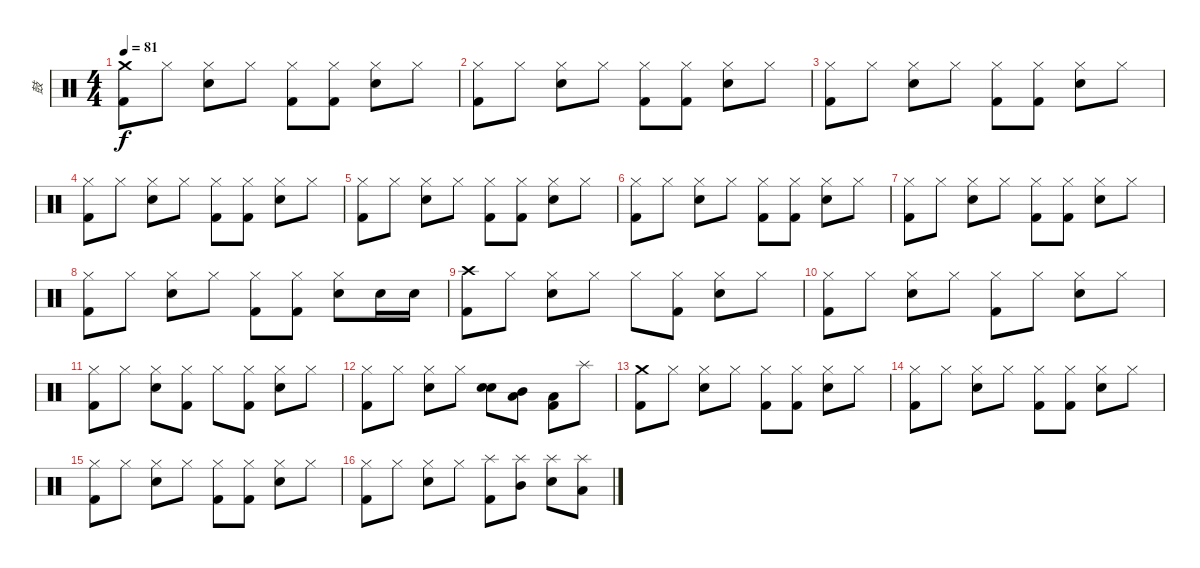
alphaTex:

\track ("鼓" "鼓") {instrument percussion}
\staff {score}
\articulation defaults
\ts (4 4)
\tempo 81
\clef neutral
\ks c
("Crash medium (hit)" "Kick (hit) 2").8{dy f} "Hi-Hat (closed)".8 ("Hi-Hat (closed)" "Snare (hit) 2").8 "Hi-Hat (closed)".8 ("Hi-Hat (closed)" "Kick (hit) 2").8 ("Hi-Hat (closed)" "Kick (hit) 2").8 ("Hi-Hat (closed)" "Snare (hit) 2").8 "Hi-Hat (closed)".8 |
("Hi-Hat (closed)" "Kick (hit) 2").8 "Hi-Hat (closed)".8 ("Hi-Hat (closed)" "Snare (hit) 2").8 "Hi-Hat (closed)".8 ("Hi-Hat (closed)" "Kick (hit) 2").8 ("Hi-Hat (closed)" "Kick (hit) 2").8 ("Hi-Hat (closed)" "Snare (hit) 2").8 "Hi-Hat (closed)".8 |
("Hi-Hat (closed)" "Kick (hit) 2").8 "Hi-Hat (closed)".8 ("Hi-Hat (closed)" "Snare (hit) 2").8 "Hi-Hat (closed)".8 ("Hi-Hat (closed)" "Kick (hit) 2").8 ("Hi-Hat (closed)" "Kick (hit) 2").8 ("Hi-Hat (closed)" "Snare (hit) 2").8 "Hi-Hat (closed)".8 |
("Hi-Hat (closed)" "Kick (hit) 2").8 "Hi-Hat (closed)".8 ("Hi-Hat (closed)" "Snare (hit) 2").8 "Hi-Hat (closed)".8 ("Hi-Hat (closed)" "Kick (hit) 2").8 ("Hi-Hat (closed)" "Kick (hit) 2").8 ("Hi-Hat (closed)" "Snare (hit) 2").8 "Hi-Hat (closed)".8 |
("Hi-Hat (closed)" "Kick (hit) 2").8 "Hi-Hat (closed)".8 ("Hi-Hat (closed)" "Snare (hit) 2").8 "Hi-Hat (closed)".8 ("Hi-Hat (closed)" "Kick (hit) 2").8 ("Hi-Hat (closed)" "Kick (hit) 2").8 ("Hi-Hat (closed)" "Snare (hit) 2").8 "Hi-Hat (closed)".8 |
("Hi-Hat (closed)" "Kick (hit) 2").8 "Hi-Hat (closed)".8 ("Hi-Hat (closed)" "Snare (hit) 2").8 "Hi-Hat (closed)".8 ("Hi-Hat (closed)" "Kick (hit) 2").8 ("Hi-Hat (closed)" "Kick (hit) 2").8 ("Hi-Hat (closed)" "Snare (hit) 2").8 "Hi-Hat (closed)".8 |
("Hi-Hat (closed)" "Kick (hit) 2").8 "Hi-Hat (closed)".8 ("Hi-Hat (closed)" "Snare (hit) 2").8 "Hi-Hat (closed)".8 ("Hi-Hat (closed)" "Kick (hit) 2").8 ("Hi-Hat (closed)" "Kick (hit) 2").8 ("Hi-Hat (closed)" "Snare (hit) 2").8 "Hi-Hat (closed)".8 |
("Hi-Hat (closed)" "Kick (hit) 2").8 "Hi-Hat (closed)".8 ("Hi-Hat (closed)" "Snare (hit) 2").8 "Hi-Hat (closed)".8 ("Hi-Hat (closed)" "Kick (hit) 2").8 ("Hi-Hat (closed)" "Kick (hit) 2").8 ("Hi-Hat (closed)" "Snare (hit) 2").8 "Snare (hit) 2".16 "Snare (hit) 2".16 |
("Crash high (hit)" "Kick (hit) 2").8 "Hi-Hat (closed)".8 ("Hi-Hat (closed)" "Snare (hit) 2").8 "Hi-Hat (closed)".8 "Hi-Hat (closed)".8 ("Hi-Hat (closed)" "Kick (hit) 2").8 ("Hi-Hat (closed)" "Snare (hit) 2").8 "Hi-Hat (closed)".8 |
("Hi-Hat (closed)" "Kick (hit) 2").8 "Hi-Hat (closed)".8 ("Hi-Hat (closed)" "Snare (hit) 2").8 "Hi-Hat (closed)".8 ("Hi-Hat (closed)" "Kick (hit) 2").8 "Hi-Hat (closed)".8 ("Hi-Hat (closed)" "Snare (hit) 2").8 "Hi-Hat (closed)".8 |
("Hi-Hat (closed)" "Kick (hit) 2").8 "Hi-Hat (closed)".8 ("Hi-Hat (closed)" "Snare (hit) 2").8 ("Hi-Hat (closed)" "Kick (hit) 2").8 "Hi-Hat (closed)".8 ("Hi-Hat (closed)" "Kick (hit) 2").8 ("Hi-Hat (closed)" "Snare (hit) 2").8 "Hi-Hat (closed)".8 |
("Hi-Hat (closed)" "Kick (hit) 2").8 "Hi-Hat (closed)".8 ("Hi-Hat (closed)" "Snare (hit) 2").8 "Hi-Hat (closed)".8 ("Snare (hit) 2" "Snare (hit) 2").8 ("Mid Tom (hit)" "Low Tom (hit)").8 ("Low Tom (hit)" "Kick (hit) 2").8 "Splash (hit)".8 |
("Crash medium (hit)" "Kick (hit) 2").8 "Hi-Hat (closed)".8 ("Hi-Hat (closed)" "Snare (hit) 2").8 "Hi-Hat (closed)".8 ("Hi-Hat (closed)" "Kick (hit) 2").8 ("Hi-Hat (closed)" "Kick (hit) 2").8 ("Hi-Hat (closed)" "Snare (hit) 2").8 "Hi-Hat (closed)".8 |
("Hi-Hat (closed)" "Kick (hit) 2").8 "Hi-Hat (closed)".8 ("Hi-Hat (closed)" "Snare (hit) 2").8 "Hi-Hat (closed)".8 ("Hi-Hat (closed)" "Kick (hit) 2").8 ("Hi-Hat (closed)" "Kick (hit) 2").8 ("Hi-Hat (closed)" "Snare (hit) 2").8 "Hi-Hat (closed)".8 |
("Hi-Hat (closed)" "Kick (hit) 2").8 "Hi-Hat (closed)".8 ("Hi-Hat (closed)" "Snare (hit) 2").8 "Hi-Hat (closed)".8 ("Hi-Hat (closed)" "Kick (hit) 2").8 ("Hi-Hat (closed)" "Kick (hit) 2").8 ("Hi-Hat (closed)" "Snare (hit) 2").8 "Hi-Hat (closed)".8 |
("Hi-Hat (closed)" "Kick (hit) 2").8 "Hi-Hat (closed)".8 ("Hi-Hat (closed)" "Snare (hit) 2").8 "Hi-Hat (closed)".8 ("Splash (hit)" "Kick (hit) 2").8 ("Splash (hit)" "Mid Tom (hit)").8 ("Splash (hit)" "Snare (hit) 2").8 ("Splash (hit)" "Low Tom (hit)").8
